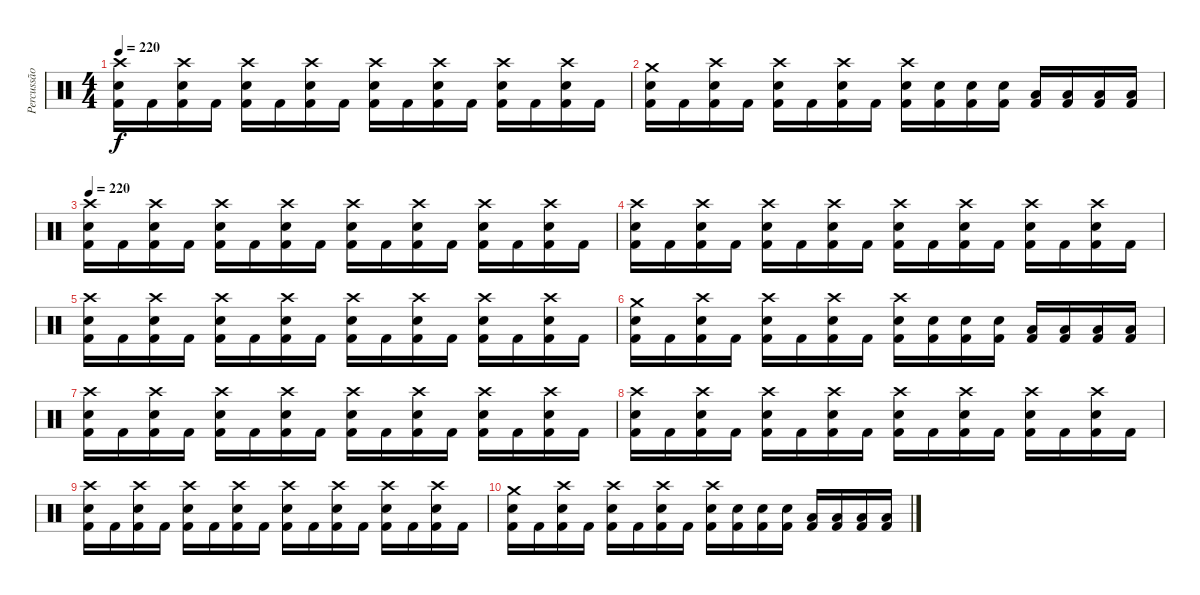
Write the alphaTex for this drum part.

\track ("Percussão" "Percussão") {instrument percussion}
\staff {score}
\articulation defaults
\ts (4 4)
\tempo 220
\clef neutral
\ks c
("Crash high (hit)" "Electric Snare (hit)" "Kick (hit) 2").16{dy f} "Kick (hit) 2".16 ("Crash high (hit)" "Electric Snare (hit)" "Kick (hit) 2").16 "Kick (hit) 2".16 ("Crash high (hit)" "Electric Snare (hit)" "Kick (hit) 2").16 "Kick (hit) 2".16 ("Crash high (hit)" "Electric Snare (hit)" "Kick (hit) 2").16 "Kick (hit) 2".16 ("Crash high (hit)" "Electric Snare (hit)" "Kick (hit) 2").16 "Kick (hit) 2".16 ("Crash high (hit)" "Electric Snare (hit)" "Kick (hit) 2").16 "Kick (hit) 2".16 ("Crash high (hit)" "Electric Snare (hit)" "Kick (hit) 2").16 "Kick (hit) 2".16 ("Crash high (hit)" "Electric Snare (hit)" "Kick (hit) 2").16 "Kick (hit) 2".16 |
("Crash medium (hit)" "Electric Snare (hit)" "Kick (hit) 2").16 "Kick (hit) 2".16 ("Crash high (hit)" "Electric Snare (hit)" "Kick (hit) 2").16 "Kick (hit) 2".16 ("Crash high (hit)" "Electric Snare (hit)" "Kick (hit) 2").16 "Kick (hit) 2".16 ("Crash high (hit)" "Electric Snare (hit)" "Kick (hit) 2").16 "Kick (hit) 2".16 ("Crash high (hit)" "Electric Snare (hit)" "Kick (hit) 2").16 ("Electric Snare (hit)" "Kick (hit) 2").16 ("Electric Snare (hit)" "Kick (hit) 2").16 ("Electric Snare (hit)" "Kick (hit) 2").16 ("Low Tom (hit)" "Kick (hit) 2").16 ("Low Tom (hit)" "Kick (hit) 2").16 ("Low Tom (hit)" "Kick (hit) 2").16 ("Low Tom (hit)" "Kick (hit) 2").16 |
\tempo 220
("Crash high (hit)" "Electric Snare (hit)" "Kick (hit) 2").16 "Kick (hit) 2".16 ("Crash high (hit)" "Electric Snare (hit)" "Kick (hit) 2").16 "Kick (hit) 2".16 ("Crash high (hit)" "Electric Snare (hit)" "Kick (hit) 2").16 "Kick (hit) 2".16 ("Crash high (hit)" "Electric Snare (hit)" "Kick (hit) 2").16 "Kick (hit) 2".16 ("Crash high (hit)" "Electric Snare (hit)" "Kick (hit) 2").16 "Kick (hit) 2".16 ("Crash high (hit)" "Electric Snare (hit)" "Kick (hit) 2").16 "Kick (hit) 2".16 ("Crash high (hit)" "Electric Snare (hit)" "Kick (hit) 2").16 "Kick (hit) 2".16 ("Crash high (hit)" "Electric Snare (hit)" "Kick (hit) 2").16 "Kick (hit) 2".16 |
("Crash high (hit)" "Electric Snare (hit)" "Kick (hit) 2").16 "Kick (hit) 2".16 ("Crash high (hit)" "Electric Snare (hit)" "Kick (hit) 2").16 "Kick (hit) 2".16 ("Crash high (hit)" "Electric Snare (hit)" "Kick (hit) 2").16 "Kick (hit) 2".16 ("Crash high (hit)" "Electric Snare (hit)" "Kick (hit) 2").16 "Kick (hit) 2".16 ("Crash high (hit)" "Electric Snare (hit)" "Kick (hit) 2").16 "Kick (hit) 2".16 ("Crash high (hit)" "Electric Snare (hit)" "Kick (hit) 2").16 "Kick (hit) 2".16 ("Crash high (hit)" "Electric Snare (hit)" "Kick (hit) 2").16 "Kick (hit) 2".16 ("Crash high (hit)" "Electric Snare (hit)" "Kick (hit) 2").16 "Kick (hit) 2".16 |
("Crash high (hit)" "Electric Snare (hit)" "Kick (hit) 2").16 "Kick (hit) 2".16 ("Crash high (hit)" "Electric Snare (hit)" "Kick (hit) 2").16 "Kick (hit) 2".16 ("Crash high (hit)" "Electric Snare (hit)" "Kick (hit) 2").16 "Kick (hit) 2".16 ("Crash high (hit)" "Electric Snare (hit)" "Kick (hit) 2").16 "Kick (hit) 2".16 ("Crash high (hit)" "Electric Snare (hit)" "Kick (hit) 2").16 "Kick (hit) 2".16 ("Crash high (hit)" "Electric Snare (hit)" "Kick (hit) 2").16 "Kick (hit) 2".16 ("Crash high (hit)" "Electric Snare (hit)" "Kick (hit) 2").16 "Kick (hit) 2".16 ("Crash high (hit)" "Electric Snare (hit)" "Kick (hit) 2").16 "Kick (hit) 2".16 |
("Crash medium (hit)" "Electric Snare (hit)" "Kick (hit) 2").16 "Kick (hit) 2".16 ("Crash high (hit)" "Electric Snare (hit)" "Kick (hit) 2").16 "Kick (hit) 2".16 ("Crash high (hit)" "Electric Snare (hit)" "Kick (hit) 2").16 "Kick (hit) 2".16 ("Crash high (hit)" "Electric Snare (hit)" "Kick (hit) 2").16 "Kick (hit) 2".16 ("Crash high (hit)" "Electric Snare (hit)" "Kick (hit) 2").16 ("Electric Snare (hit)" "Kick (hit) 2").16 ("Electric Snare (hit)" "Kick (hit) 2").16 ("Electric Snare (hit)" "Kick (hit) 2").16 ("Low Tom (hit)" "Kick (hit) 2").16 ("Low Tom (hit)" "Kick (hit) 2").16 ("Low Tom (hit)" "Kick (hit) 2").16 ("Low Tom (hit)" "Kick (hit) 2").16 |
("Crash high (hit)" "Electric Snare (hit)" "Kick (hit) 2").16 "Kick (hit) 2".16 ("Crash high (hit)" "Electric Snare (hit)" "Kick (hit) 2").16 "Kick (hit) 2".16 ("Crash high (hit)" "Electric Snare (hit)" "Kick (hit) 2").16 "Kick (hit) 2".16 ("Crash high (hit)" "Electric Snare (hit)" "Kick (hit) 2").16 "Kick (hit) 2".16 ("Crash high (hit)" "Electric Snare (hit)" "Kick (hit) 2").16 "Kick (hit) 2".16 ("Crash high (hit)" "Electric Snare (hit)" "Kick (hit) 2").16 "Kick (hit) 2".16 ("Crash high (hit)" "Electric Snare (hit)" "Kick (hit) 2").16 "Kick (hit) 2".16 ("Crash high (hit)" "Electric Snare (hit)" "Kick (hit) 2").16 "Kick (hit) 2".16 |
("Crash high (hit)" "Electric Snare (hit)" "Kick (hit) 2").16 "Kick (hit) 2".16 ("Crash high (hit)" "Electric Snare (hit)" "Kick (hit) 2").16 "Kick (hit) 2".16 ("Crash high (hit)" "Electric Snare (hit)" "Kick (hit) 2").16 "Kick (hit) 2".16 ("Crash high (hit)" "Electric Snare (hit)" "Kick (hit) 2").16 "Kick (hit) 2".16 ("Crash high (hit)" "Electric Snare (hit)" "Kick (hit) 2").16 "Kick (hit) 2".16 ("Crash high (hit)" "Electric Snare (hit)" "Kick (hit) 2").16 "Kick (hit) 2".16 ("Crash high (hit)" "Electric Snare (hit)" "Kick (hit) 2").16 "Kick (hit) 2".16 ("Crash high (hit)" "Electric Snare (hit)" "Kick (hit) 2").16 "Kick (hit) 2".16 |
("Crash high (hit)" "Electric Snare (hit)" "Kick (hit) 2").16 "Kick (hit) 2".16 ("Crash high (hit)" "Electric Snare (hit)" "Kick (hit) 2").16 "Kick (hit) 2".16 ("Crash high (hit)" "Electric Snare (hit)" "Kick (hit) 2").16 "Kick (hit) 2".16 ("Crash high (hit)" "Electric Snare (hit)" "Kick (hit) 2").16 "Kick (hit) 2".16 ("Crash high (hit)" "Electric Snare (hit)" "Kick (hit) 2").16 "Kick (hit) 2".16 ("Crash high (hit)" "Electric Snare (hit)" "Kick (hit) 2").16 "Kick (hit) 2".16 ("Crash high (hit)" "Electric Snare (hit)" "Kick (hit) 2").16 "Kick (hit) 2".16 ("Crash high (hit)" "Electric Snare (hit)" "Kick (hit) 2").16 "Kick (hit) 2".16 |
("Crash medium (hit)" "Electric Snare (hit)" "Kick (hit) 2").16 "Kick (hit) 2".16 ("Crash high (hit)" "Electric Snare (hit)" "Kick (hit) 2").16 "Kick (hit) 2".16 ("Crash high (hit)" "Electric Snare (hit)" "Kick (hit) 2").16 "Kick (hit) 2".16 ("Crash high (hit)" "Electric Snare (hit)" "Kick (hit) 2").16 "Kick (hit) 2".16 ("Crash high (hit)" "Electric Snare (hit)" "Kick (hit) 2").16 ("Electric Snare (hit)" "Kick (hit) 2").16 ("Electric Snare (hit)" "Kick (hit) 2").16 ("Electric Snare (hit)" "Kick (hit) 2").16 ("Low Tom (hit)" "Kick (hit) 2").16 ("Low Tom (hit)" "Kick (hit) 2").16 ("Low Tom (hit)" "Kick (hit) 2").16 ("Low Tom (hit)" "Kick (hit) 2").16
